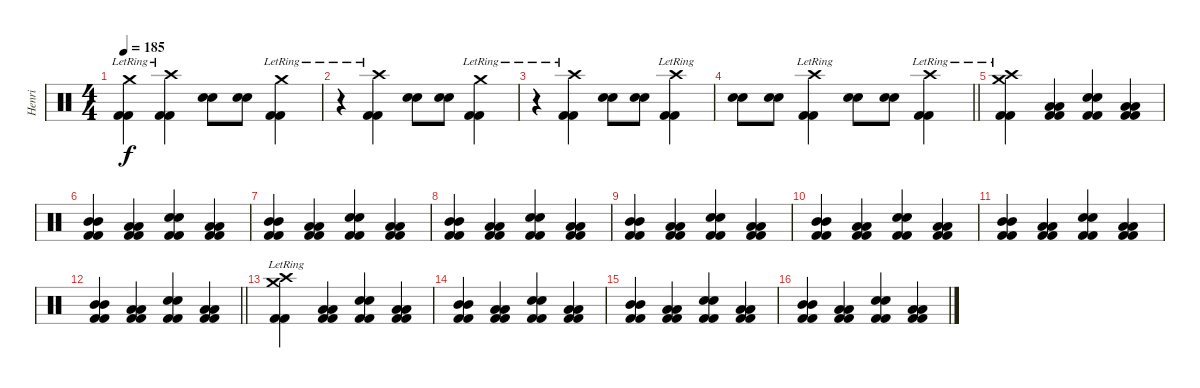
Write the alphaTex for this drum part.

\track ("Henri" "Henri") {instrument percussion}
\staff {score}
\articulation defaults
\ts (4 4)
\tempo 185
\clef neutral
\ks c
("Crash medium (hit)"{lr} "Kick (hit) 2" "Kick (hit) 2").4{dy f} ("Crash high (hit)"{lr} "Kick (hit) 2" "Kick (hit) 2").4 ("Snare (hit) 2" "Snare (hit) 2").8 ("Snare (hit) 2" "Snare (hit) 2").8 ("Crash medium (hit)"{lr} "Kick (hit) 2" "Kick (hit) 2").4 |
r.4 ("Crash high (hit)"{lr} "Kick (hit) 2" "Kick (hit) 2").4 ("Snare (hit) 2" "Snare (hit) 2").8 ("Snare (hit) 2" "Snare (hit) 2").8 ("Crash medium (hit)"{lr} "Kick (hit) 2" "Kick (hit) 2").4 |
r.4 ("Crash high (hit)"{lr} "Kick (hit) 2" "Kick (hit) 2").4 ("Snare (hit) 2" "Snare (hit) 2").8 ("Snare (hit) 2" "Snare (hit) 2").8 ("Crash high (hit)"{lr} "Kick (hit) 2" "Kick (hit) 2").4 |
\barLineRight lightlight
("Snare (hit) 2" "Snare (hit) 2").8 ("Snare (hit) 2" "Snare (hit) 2").8 ("Crash high (hit)"{lr} "Kick (hit) 2" "Kick (hit) 2").4 ("Snare (hit) 2" "Snare (hit) 2").8 ("Snare (hit) 2" "Snare (hit) 2").8 ("Crash high (hit)"{lr} "Kick (hit) 2" "Kick (hit) 2").4 |
("Crash high (hit)"{lr} "Crash medium (hit)"{lr} "Kick (hit) 2" "Kick (hit) 2").4 ("Low Tom (hit)" "Low Tom (hit)" "Kick (hit) 2" "Kick (hit) 2").4 ("Snare (hit) 2" "Snare (hit) 2" "Kick (hit) 2" "Kick (hit) 2").4 ("Low Tom (hit)" "Low Tom (hit)" "Kick (hit) 2" "Kick (hit) 2").4 |
("Mid Tom (hit)" "Mid Tom (hit)" "Kick (hit) 2" "Kick (hit) 2").4 ("Low Tom (hit)" "Low Tom (hit)" "Kick (hit) 2" "Kick (hit) 2").4 ("Snare (hit) 2" "Snare (hit) 2" "Kick (hit) 2" "Kick (hit) 2").4 ("Low Tom (hit)" "Low Tom (hit)" "Kick (hit) 2" "Kick (hit) 2").4 |
("Mid Tom (hit)" "Mid Tom (hit)" "Kick (hit) 2" "Kick (hit) 2").4 ("Low Tom (hit)" "Low Tom (hit)" "Kick (hit) 2" "Kick (hit) 2").4 ("Snare (hit) 2" "Snare (hit) 2" "Kick (hit) 2" "Kick (hit) 2").4 ("Low Tom (hit)" "Low Tom (hit)" "Kick (hit) 2" "Kick (hit) 2").4 |
("Mid Tom (hit)" "Mid Tom (hit)" "Kick (hit) 2" "Kick (hit) 2").4 ("Low Tom (hit)" "Low Tom (hit)" "Kick (hit) 2" "Kick (hit) 2").4 ("Snare (hit) 2" "Snare (hit) 2" "Kick (hit) 2" "Kick (hit) 2").4 ("Low Tom (hit)" "Low Tom (hit)" "Kick (hit) 2" "Kick (hit) 2").4 |
("Mid Tom (hit)" "Mid Tom (hit)" "Kick (hit) 2" "Kick (hit) 2").4 ("Low Tom (hit)" "Low Tom (hit)" "Kick (hit) 2" "Kick (hit) 2").4 ("Snare (hit) 2" "Snare (hit) 2" "Kick (hit) 2" "Kick (hit) 2").4 ("Low Tom (hit)" "Low Tom (hit)" "Kick (hit) 2" "Kick (hit) 2").4 |
("Mid Tom (hit)" "Mid Tom (hit)" "Kick (hit) 2" "Kick (hit) 2").4 ("Low Tom (hit)" "Low Tom (hit)" "Kick (hit) 2" "Kick (hit) 2").4 ("Snare (hit) 2" "Snare (hit) 2" "Kick (hit) 2" "Kick (hit) 2").4 ("Low Tom (hit)" "Low Tom (hit)" "Kick (hit) 2" "Kick (hit) 2").4 |
("Mid Tom (hit)" "Mid Tom (hit)" "Kick (hit) 2" "Kick (hit) 2").4 ("Low Tom (hit)" "Low Tom (hit)" "Kick (hit) 2" "Kick (hit) 2").4 ("Snare (hit) 2" "Snare (hit) 2" "Kick (hit) 2" "Kick (hit) 2").4 ("Low Tom (hit)" "Low Tom (hit)" "Kick (hit) 2" "Kick (hit) 2").4 |
\barLineRight lightlight
("Mid Tom (hit)" "Mid Tom (hit)" "Kick (hit) 2" "Kick (hit) 2").4 ("Low Tom (hit)" "Low Tom (hit)" "Kick (hit) 2" "Kick (hit) 2").4 ("Snare (hit) 2" "Snare (hit) 2" "Kick (hit) 2" "Kick (hit) 2").4 ("Low Tom (hit)" "Low Tom (hit)" "Kick (hit) 2" "Kick (hit) 2").4 |
("Crash high (hit)"{lr} "Crash medium (hit)"{lr} "Kick (hit) 2" "Kick (hit) 2").4 ("Low Tom (hit)" "Low Tom (hit)" "Kick (hit) 2" "Kick (hit) 2").4 ("Snare (hit) 2" "Snare (hit) 2" "Kick (hit) 2" "Kick (hit) 2").4 ("Low Tom (hit)" "Low Tom (hit)" "Kick (hit) 2" "Kick (hit) 2").4 |
("Mid Tom (hit)" "Mid Tom (hit)" "Kick (hit) 2" "Kick (hit) 2").4 ("Low Tom (hit)" "Low Tom (hit)" "Kick (hit) 2" "Kick (hit) 2").4 ("Snare (hit) 2" "Snare (hit) 2" "Kick (hit) 2" "Kick (hit) 2").4 ("Low Tom (hit)" "Low Tom (hit)" "Kick (hit) 2" "Kick (hit) 2").4 |
("Mid Tom (hit)" "Mid Tom (hit)" "Kick (hit) 2" "Kick (hit) 2").4 ("Low Tom (hit)" "Low Tom (hit)" "Kick (hit) 2" "Kick (hit) 2").4 ("Snare (hit) 2" "Snare (hit) 2" "Kick (hit) 2" "Kick (hit) 2").4 ("Low Tom (hit)" "Low Tom (hit)" "Kick (hit) 2" "Kick (hit) 2").4 |
("Mid Tom (hit)" "Mid Tom (hit)" "Kick (hit) 2" "Kick (hit) 2").4 ("Low Tom (hit)" "Low Tom (hit)" "Kick (hit) 2" "Kick (hit) 2").4 ("Snare (hit) 2" "Snare (hit) 2" "Kick (hit) 2" "Kick (hit) 2").4 ("Low Tom (hit)" "Low Tom (hit)" "Kick (hit) 2" "Kick (hit) 2").4
